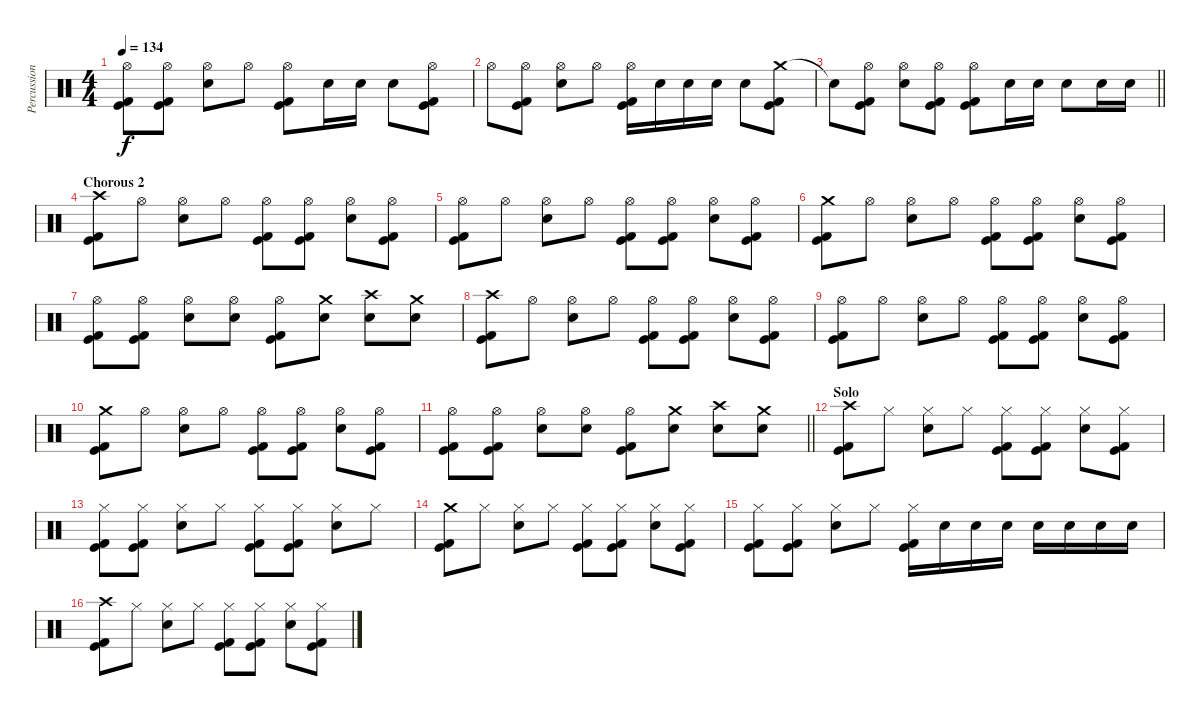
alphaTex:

\track ("Percussion" "Percussion") {instrument percussion}
\staff {score}
\articulation defaults
\ts (4 4)
\tempo 134
\clef neutral
\ks c
("Hi-Hat (open)" "Kick (hit)" "Kick (hit) 2").8{dy f} ("Hi-Hat (open)" "Kick (hit)" "Kick (hit) 2").8 ("Hi-Hat (open)" "Electric Snare (hit)").8 "Hi-Hat (open)".8 ("Hi-Hat (open)" "Kick (hit)" "Kick (hit) 2").8 "Electric Snare (hit)".16 "Electric Snare (hit)".16 "Electric Snare (hit)".8 ("Hi-Hat (open)" "Kick (hit)" "Kick (hit) 2").8 |
"Hi-Hat (open)".8 ("Hi-Hat (open)" "Kick (hit)" "Kick (hit) 2").8 ("Hi-Hat (open)" "Electric Snare (hit)").8 "Hi-Hat (open)".8 ("Hi-Hat (open)" "Kick (hit)" "Kick (hit) 2").16 "Electric Snare (hit)".16 "Electric Snare (hit)".16 "Electric Snare (hit)".16 "Electric Snare (hit)".8 ("Crash medium (hit)" "Kick (hit)" "Kick (hit) 2").8 |
\barLineRight lightlight "Snare (hit)"{t}.8
("Hi-Hat (open)" "Kick (hit)" "Kick (hit) 2").8 ("Hi-Hat (open)" "Electric Snare (hit)").8 ("Hi-Hat (open)" "Kick (hit)" "Kick (hit) 2").8 ("Hi-Hat (open)" "Kick (hit)" "Kick (hit) 2").8 "Electric Snare (hit)".16 "Electric Snare (hit)".16 "Electric Snare (hit)".8 "Electric Snare (hit)".16 "Electric Snare (hit)".16 |
\section ("" "Chorous 2")
("Crash high (hit)" "Kick (hit)" "Kick (hit) 2").8 "Hi-Hat (open)".8 ("Hi-Hat (open)" "Electric Snare (hit)").8 "Hi-Hat (open)".8 ("Hi-Hat (open)" "Kick (hit)" "Kick (hit) 2").8 ("Hi-Hat (open)" "Kick (hit)" "Kick (hit) 2").8 ("Hi-Hat (open)" "Electric Snare (hit)").8 ("Hi-Hat (open)" "Kick (hit)" "Kick (hit) 2").8 |
("Hi-Hat (open)" "Kick (hit)" "Kick (hit) 2").8 "Hi-Hat (open)".8 ("Hi-Hat (open)" "Electric Snare (hit)").8 "Hi-Hat (open)".8 ("Hi-Hat (open)" "Kick (hit)" "Kick (hit) 2").8 ("Hi-Hat (open)" "Kick (hit)" "Kick (hit) 2").8 ("Hi-Hat (open)" "Electric Snare (hit)").8 ("Hi-Hat (open)" "Kick (hit)" "Kick (hit) 2").8 |
("Crash medium (hit)" "Kick (hit)" "Kick (hit) 2").8 "Hi-Hat (open)".8 ("Hi-Hat (open)" "Electric Snare (hit)").8 "Hi-Hat (open)".8 ("Hi-Hat (open)" "Kick (hit)" "Kick (hit) 2").8 ("Hi-Hat (open)" "Kick (hit)" "Kick (hit) 2").8 ("Hi-Hat (open)" "Electric Snare (hit)").8 ("Hi-Hat (open)" "Kick (hit)" "Kick (hit) 2").8 |
("Hi-Hat (open)" "Kick (hit)" "Kick (hit) 2").8 ("Hi-Hat (open)" "Kick (hit)" "Kick (hit) 2").8 ("Hi-Hat (open)" "Electric Snare (hit)").8 ("Hi-Hat (open)" "Electric Snare (hit)").8 ("Hi-Hat (open)" "Kick (hit)" "Kick (hit) 2").8 ("Crash medium (hit)" "Electric Snare (hit)").8 ("Crash high (hit)" "Electric Snare (hit)").8 ("Crash medium (hit)" "Electric Snare (hit)").8 |
("Crash high (hit)" "Kick (hit)" "Kick (hit) 2").8 "Hi-Hat (open)".8 ("Hi-Hat (open)" "Electric Snare (hit)").8 "Hi-Hat (open)".8 ("Hi-Hat (open)" "Kick (hit)" "Kick (hit) 2").8 ("Hi-Hat (open)" "Kick (hit)" "Kick (hit) 2").8 ("Hi-Hat (open)" "Electric Snare (hit)").8 ("Hi-Hat (open)" "Kick (hit)" "Kick (hit) 2").8 |
("Hi-Hat (open)" "Kick (hit)" "Kick (hit) 2").8 "Hi-Hat (open)".8 ("Hi-Hat (open)" "Electric Snare (hit)").8 "Hi-Hat (open)".8 ("Hi-Hat (open)" "Kick (hit)" "Kick (hit) 2").8 ("Hi-Hat (open)" "Kick (hit)" "Kick (hit) 2").8 ("Hi-Hat (open)" "Electric Snare (hit)").8 ("Hi-Hat (open)" "Kick (hit)" "Kick (hit) 2").8 |
("Crash medium (hit)" "Kick (hit)" "Kick (hit) 2").8 "Hi-Hat (open)".8 ("Hi-Hat (open)" "Electric Snare (hit)").8 "Hi-Hat (open)".8 ("Hi-Hat (open)" "Kick (hit)" "Kick (hit) 2").8 ("Hi-Hat (open)" "Kick (hit)" "Kick (hit) 2").8 ("Hi-Hat (open)" "Electric Snare (hit)").8 ("Hi-Hat (open)" "Kick (hit)" "Kick (hit) 2").8 |
\barLineRight lightlight
("Hi-Hat (open)" "Kick (hit)" "Kick (hit) 2").8 ("Hi-Hat (open)" "Kick (hit)" "Kick (hit) 2").8 ("Hi-Hat (open)" "Electric Snare (hit)").8 ("Hi-Hat (open)" "Electric Snare (hit)").8 ("Hi-Hat (open)" "Kick (hit)" "Kick (hit) 2").8 ("Crash medium (hit)" "Electric Snare (hit)").8 ("Crash high (hit)" "Electric Snare (hit)").8 ("Crash medium (hit)" "Electric Snare (hit)").8 |
\section ("" "Solo")
("Crash high (hit)" "Kick (hit)" "Kick (hit) 2").8 "Hi-Hat (closed)".8 ("Hi-Hat (closed)" "Electric Snare (hit)").8 "Hi-Hat (closed)".8 ("Hi-Hat (closed)" "Kick (hit)" "Kick (hit) 2").8 ("Hi-Hat (closed)" "Kick (hit)" "Kick (hit) 2").8 ("Hi-Hat (closed)" "Electric Snare (hit)").8 ("Hi-Hat (closed)" "Kick (hit)" "Kick (hit) 2").8 |
("Hi-Hat (closed)" "Kick (hit)" "Kick (hit) 2").8 ("Hi-Hat (closed)" "Kick (hit)" "Kick (hit) 2").8 ("Hi-Hat (closed)" "Electric Snare (hit)").8 "Hi-Hat (closed)".8 ("Hi-Hat (closed)" "Kick (hit)" "Kick (hit) 2").8 ("Hi-Hat (closed)" "Kick (hit)" "Kick (hit) 2").8 ("Hi-Hat (closed)" "Electric Snare (hit)").8 "Hi-Hat (closed)".8 |
("Crash medium (hit)" "Kick (hit)" "Kick (hit) 2").8 "Hi-Hat (closed)".8 ("Hi-Hat (closed)" "Electric Snare (hit)").8 "Hi-Hat (closed)".8 ("Hi-Hat (closed)" "Kick (hit)" "Kick (hit) 2").8 ("Hi-Hat (closed)" "Kick (hit)" "Kick (hit) 2").8 ("Hi-Hat (closed)" "Electric Snare (hit)").8 ("Hi-Hat (closed)" "Kick (hit)" "Kick (hit) 2").8 |
("Hi-Hat (closed)" "Kick (hit)" "Kick (hit) 2").8 ("Hi-Hat (closed)" "Kick (hit)" "Kick (hit) 2").8 ("Hi-Hat (closed)" "Electric Snare (hit)").8 "Hi-Hat (closed)".8 ("Hi-Hat (closed)" "Kick (hit)" "Kick (hit) 2").16 "Electric Snare (hit)".16 "Electric Snare (hit)".16 "Electric Snare (hit)".16 "Electric Snare (hit)".16 "Electric Snare (hit)".16 "Electric Snare (hit)".16 "Electric Snare (hit)".16 |
("Crash high (hit)" "Kick (hit)" "Kick (hit) 2").8 "Hi-Hat (closed)".8 ("Hi-Hat (closed)" "Electric Snare (hit)").8 "Hi-Hat (closed)".8 ("Hi-Hat (closed)" "Kick (hit)" "Kick (hit) 2").8 ("Hi-Hat (closed)" "Kick (hit)" "Kick (hit) 2").8 ("Hi-Hat (closed)" "Electric Snare (hit)").8 ("Hi-Hat (closed)" "Kick (hit)" "Kick (hit) 2").8
